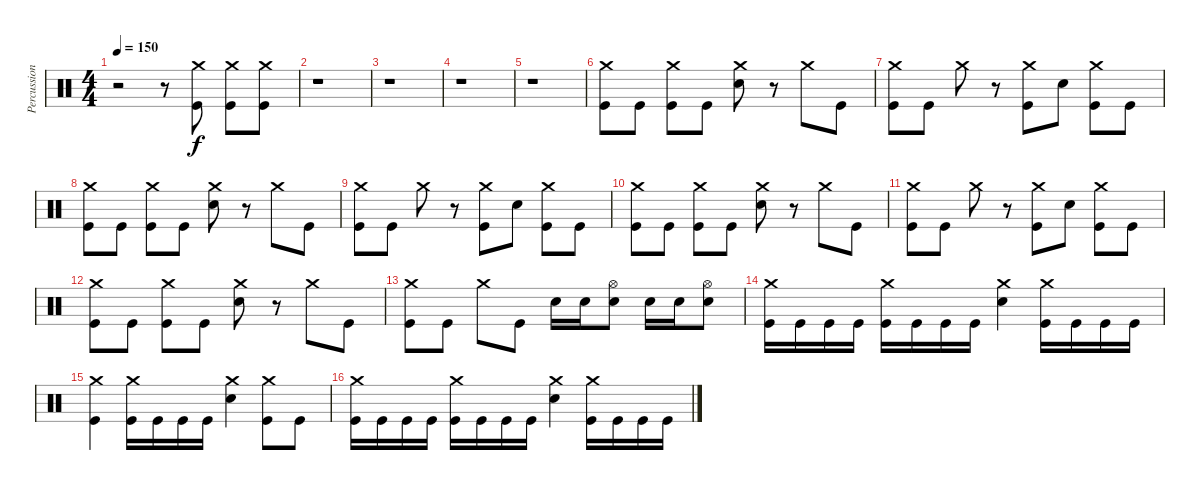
\track ("Percussion" "Percussion") {instrument percussion}
\staff {score}
\articulation defaults
\ts (4 4)
\tempo 150
\clef neutral
\ks c
r.2{dy f} r.8 ("Crash medium (hit)" "Kick (hit)").8 ("Crash medium (hit)" "Kick (hit)").8 ("Crash medium (hit)" "Kick (hit)").8 |
r.1 |
r.1 |
r.1 |
r.1 |
("Crash medium (hit)" "Kick (hit)").8 "Kick (hit)".8 ("Crash medium (hit)" "Kick (hit)").8 "Kick (hit)".8 ("Crash medium (hit)" "Snare (hit) 2").8 r.8 "Crash medium (hit)".8 "Kick (hit)".8 |
("Crash medium (hit)" "Kick (hit)").8 "Kick (hit)".8 "Crash medium (hit)".8 r.8 ("Crash medium (hit)" "Kick (hit)").8 "Snare (hit) 2".8 ("Crash medium (hit)" "Kick (hit)").8 "Kick (hit)".8 |
("Crash medium (hit)" "Kick (hit)").8 "Kick (hit)".8 ("Crash medium (hit)" "Kick (hit)").8 "Kick (hit)".8 ("Crash medium (hit)" "Snare (hit) 2").8 r.8 "Crash medium (hit)".8 "Kick (hit)".8 |
("Crash medium (hit)" "Kick (hit)").8 "Kick (hit)".8 "Crash medium (hit)".8 r.8 ("Crash medium (hit)" "Kick (hit)").8 "Snare (hit) 2".8 ("Crash medium (hit)" "Kick (hit)").8 "Kick (hit)".8 |
("Crash medium (hit)" "Kick (hit)").8 "Kick (hit)".8 ("Crash medium (hit)" "Kick (hit)").8 "Kick (hit)".8 ("Crash medium (hit)" "Snare (hit) 2").8 r.8 "Crash medium (hit)".8 "Kick (hit)".8 |
("Crash medium (hit)" "Kick (hit)").8 "Kick (hit)".8 "Crash medium (hit)".8 r.8 ("Crash medium (hit)" "Kick (hit)").8 "Snare (hit) 2".8 ("Crash medium (hit)" "Kick (hit)").8 "Kick (hit)".8 |
("Crash medium (hit)" "Kick (hit)").8 "Kick (hit)".8 ("Crash medium (hit)" "Kick (hit)").8 "Kick (hit)".8 ("Crash medium (hit)" "Snare (hit) 2").8 r.8 "Crash medium (hit)".8 "Kick (hit)".8 |
("Crash medium (hit)" "Kick (hit)").8 "Kick (hit)".8 "Crash medium (hit)".8 "Kick (hit)".8 "Snare (hit) 2".16 "Snare (hit) 2".16 ("Hi-Hat (open)" "Snare (hit) 2").8 "Snare (hit) 2".16 "Snare (hit) 2".16 ("Hi-Hat (open)" "Snare (hit) 2").8 |
("Crash medium (hit)" "Kick (hit)").16 "Kick (hit)".16 "Kick (hit)".16 "Kick (hit)".16 ("Crash medium (hit)" "Kick (hit)").16 "Kick (hit)".16 "Kick (hit)".16 "Kick (hit)".16 ("Crash medium (hit)" "Snare (hit) 2").4 ("Crash medium (hit)" "Kick (hit)").16 "Kick (hit)".16 "Kick (hit)".16 "Kick (hit)".16 |
("Crash medium (hit)" "Kick (hit)").4 ("Crash medium (hit)" "Kick (hit)").16 "Kick (hit)".16 "Kick (hit)".16 "Kick (hit)".16 ("Crash medium (hit)" "Snare (hit) 2").4 ("Crash medium (hit)" "Kick (hit)").8 "Kick (hit)".8 |
("Crash medium (hit)" "Kick (hit)").16 "Kick (hit)".16 "Kick (hit)".16 "Kick (hit)".16 ("Crash medium (hit)" "Kick (hit)").16 "Kick (hit)".16 "Kick (hit)".16 "Kick (hit)".16 ("Crash medium (hit)" "Snare (hit) 2").4 ("Crash medium (hit)" "Kick (hit)").16 "Kick (hit)".16 "Kick (hit)".16 "Kick (hit)".16
